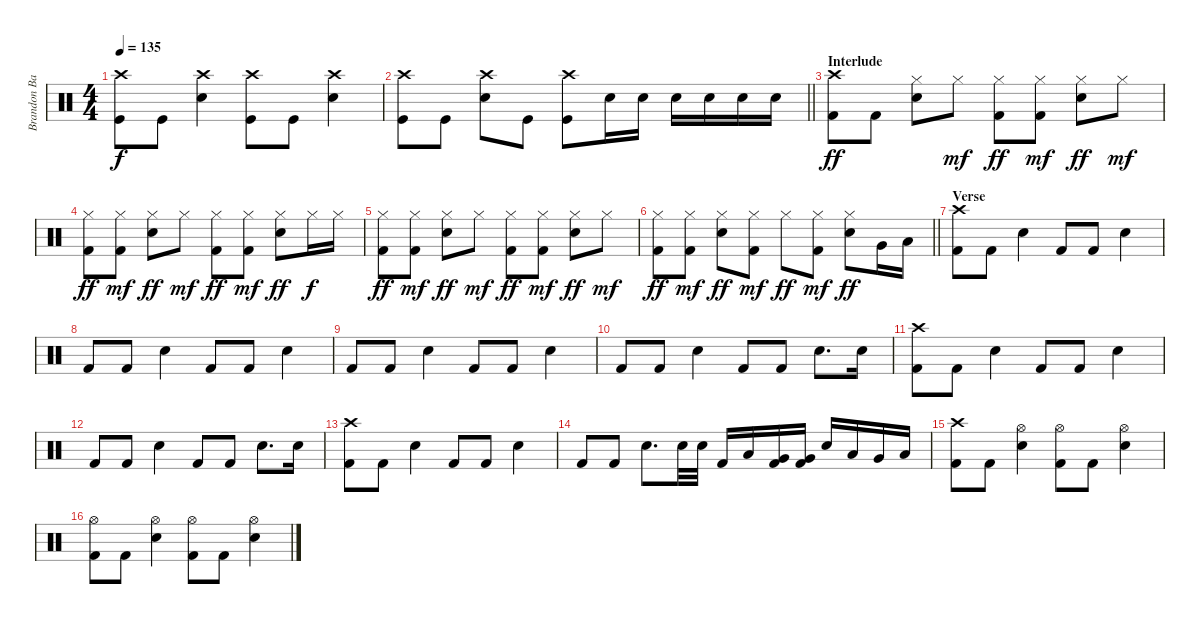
\track ("Brandon Barnes - Drums" "Brandon Ba") {instrument percussion}
\staff {score}
\articulation defaults
\ts (4 4)
\tempo 135
\clef neutral
\ks c
("Crash high (hit)" "Kick (hit)").8{dy f} "Kick (hit)".8 ("Snare (hit) 2" "Crash high (hit)").4 ("Crash high (hit)" "Kick (hit)").8 "Kick (hit)".8 ("Snare (hit) 2" "Crash high (hit)").4 |
\barLineRight lightlight
("Crash high (hit)" "Kick (hit)").8 "Kick (hit)".8 ("Snare (hit) 2" "Crash high (hit)").8 "Kick (hit)".8 ("Crash high (hit)" "Kick (hit)").8 "Snare (hit) 2".16 "Snare (hit) 2".16 "Snare (hit) 2".16 "Snare (hit) 2".16 "Snare (hit) 2".16 "Snare (hit) 2".16 |
\section ("" "Interlude")
("Crash high (hit)" "Kick (hit) 2").8{dy ff} "Kick (hit) 2".8 ("Snare (hit) 2" "Hi-Hat (closed)").8 "Hi-Hat (closed)".8{dy mf} ("Kick (hit) 2" "Hi-Hat (closed)").8{dy ff} ("Kick (hit) 2" "Hi-Hat (closed)").8{dy mf} ("Electric Snare (hit)" "Hi-Hat (closed)").8{dy ff} "Hi-Hat (closed)".8{dy mf} |
("Kick (hit) 2" "Hi-Hat (closed)").8{dy ff} ("Kick (hit) 2" "Hi-Hat (closed)").8{dy mf} ("Electric Snare (hit)" "Hi-Hat (closed)").8{dy ff} "Hi-Hat (closed)".8{dy mf} ("Kick (hit) 2" "Hi-Hat (closed)").8{dy ff} ("Kick (hit) 2" "Hi-Hat (closed)").8{dy mf} ("Electric Snare (hit)" "Hi-Hat (closed)").8{dy ff} "Hi-Hat (closed)".16{dy f} "Hi-Hat (closed)".16 |
("Kick (hit) 2" "Hi-Hat (closed)").8{dy ff} ("Kick (hit) 2" "Hi-Hat (closed)").8{dy mf} ("Electric Snare (hit)" "Hi-Hat (closed)").8{dy ff} "Hi-Hat (closed)".8{dy mf} ("Kick (hit) 2" "Hi-Hat (closed)").8{dy ff} ("Kick (hit) 2" "Hi-Hat (closed)").8{dy mf} ("Electric Snare (hit)" "Hi-Hat (closed)").8{dy ff} "Hi-Hat (closed)".8{dy mf} |
\barLineRight lightlight
("Kick (hit) 2" "Hi-Hat (closed)").8{dy ff} ("Kick (hit) 2" "Hi-Hat (closed)").8{dy mf} ("Electric Snare (hit)" "Hi-Hat (closed)").8{dy ff} ("Kick (hit) 2" "Hi-Hat (closed)").8{dy mf} "Hi-Hat (closed)".8{dy ff} ("Kick (hit) 2" "Hi-Hat (closed)").8{dy mf} ("Electric Snare (hit)" "Hi-Hat (closed)").8{dy ff} "Very Low Tom (hit)".16 "Low Floor Tom (hit)".16 |
\section ("" "Verse")
("Crash high (hit)" "Kick (hit) 2").8 "Kick (hit) 2".8 "Snare (hit) 2".4 "Kick (hit) 2".8 "Kick (hit) 2".8 "Snare (hit) 2".4 |
"Kick (hit) 2".8 "Kick (hit) 2".8 "Snare (hit) 2".4 "Kick (hit) 2".8 "Kick (hit) 2".8 "Snare (hit) 2".4 |
"Kick (hit) 2".8 "Kick (hit) 2".8 "Snare (hit) 2".4 "Kick (hit) 2".8 "Kick (hit) 2".8 "Snare (hit) 2".4 |
"Kick (hit) 2".8 "Kick (hit) 2".8 "Snare (hit) 2".4 "Kick (hit) 2".8 "Kick (hit) 2".8 "Snare (hit) 2".8{d} "Snare (hit) 2".16 |
("Kick (hit) 2" "Crash high (hit)").8 "Kick (hit) 2".8 "Snare (hit) 2".4 "Kick (hit) 2".8 "Kick (hit) 2".8 "Snare (hit) 2".4 |
"Kick (hit) 2".8 "Kick (hit) 2".8 "Snare (hit) 2".4 "Kick (hit) 2".8 "Kick (hit) 2".8 "Snare (hit) 2".8{d} "Snare (hit) 2".16 |
("Kick (hit) 2" "Crash high (hit)").8 "Kick (hit) 2".8 "Snare (hit) 2".4 "Kick (hit) 2".8 "Kick (hit) 2".8 "Snare (hit) 2".4 |
"Kick (hit) 2".8 "Kick (hit) 2".8 "Snare (hit) 2".8{d} "Snare (hit) 2".32 "Snare (hit) 2".32 "Kick (hit) 2".16 "Low Tom (hit)".16 ("Very Low Tom (hit)" "Kick (hit) 2").16 ("Kick (hit) 2" "Very Low Tom (hit)").16 "Snare (hit) 2".16 "Low Tom (hit)".16 "Very Low Tom (hit)".16 "Low Floor Tom (hit)".16 |
("Kick (hit) 2" "Crash high (hit)").8 "Kick (hit) 2".8 ("Snare (hit) 2" "Hi-Hat (open)").4 ("Hi-Hat (open)" "Kick (hit) 2").8 "Kick (hit) 2".8 ("Snare (hit) 2" "Hi-Hat (open)").4 |
("Hi-Hat (open)" "Kick (hit) 2").8 "Kick (hit) 2".8 ("Snare (hit) 2" "Hi-Hat (open)").4 ("Hi-Hat (open)" "Kick (hit) 2").8 "Kick (hit) 2".8 ("Snare (hit) 2" "Hi-Hat (open)").4
